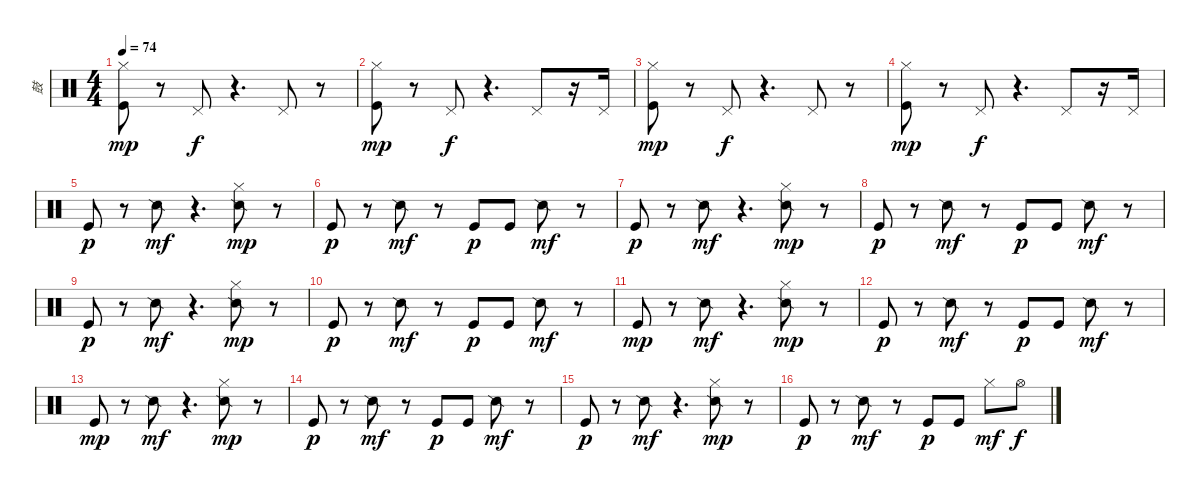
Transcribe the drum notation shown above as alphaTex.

\track ("鼓" "鼓") {instrument percussion}
\staff {score}
\articulation defaults
\ts (4 4)
\tempo 74
\clef neutral
\ks c
("Kick (hit)" "Hi-Hat (closed)").8{dy mp} r.8 "Pedal Hi-Hat (hit)".8{dy f} r.4{d} "Pedal Hi-Hat (hit)".8 r.8 |
("Kick (hit)" "Hi-Hat (closed)").8{dy mp} r.8 "Pedal Hi-Hat (hit)".8{dy f} r.4{d} "Pedal Hi-Hat (hit)".8 r.16 "Pedal Hi-Hat (hit)".16 |
("Kick (hit)" "Hi-Hat (closed)").8{dy mp} r.8 "Pedal Hi-Hat (hit)".8{dy f} r.4{d} "Pedal Hi-Hat (hit)".8 r.8 |
("Kick (hit)" "Hi-Hat (closed)").8{dy mp} r.8 "Pedal Hi-Hat (hit)".8{dy f} r.4{d} "Pedal Hi-Hat (hit)".8 r.16 "Pedal Hi-Hat (hit)".16 |
"Kick (hit)".8{dy p} r.8 "Snare (side stick) 2".8{dy mf} r.4{d} ("Snare (side stick) 2" "Hi-Hat (closed)").8{dy mp} r.8 |
"Kick (hit)".8{dy p} r.8 "Snare (side stick) 2".8{dy mf} r.8 "Kick (hit)".8{dy p} "Kick (hit)".8 "Snare (side stick) 2".8{dy mf} r.8 |
"Kick (hit)".8{dy p} r.8 "Snare (side stick) 2".8{dy mf} r.4{d} ("Snare (side stick) 2" "Hi-Hat (closed)").8{dy mp} r.8 |
"Kick (hit)".8{dy p} r.8 "Snare (side stick) 2".8{dy mf} r.8 "Kick (hit)".8{dy p} "Kick (hit)".8 "Snare (side stick) 2".8{dy mf} r.8 |
"Kick (hit)".8{dy p} r.8 "Snare (side stick) 2".8{dy mf} r.4{d} ("Snare (side stick) 2" "Hi-Hat (closed)").8{dy mp} r.8 |
"Kick (hit)".8{dy p} r.8 "Snare (side stick) 2".8{dy mf} r.8 "Kick (hit)".8{dy p} "Kick (hit)".8 "Snare (side stick) 2".8{dy mf} r.8 |
"Kick (hit)".8{dy mp} r.8 "Snare (side stick) 2".8{dy mf} r.4{d} ("Snare (side stick) 2" "Hi-Hat (closed)").8{dy mp} r.8 |
"Kick (hit)".8{dy p} r.8 "Snare (side stick) 2".8{dy mf} r.8 "Kick (hit)".8{dy p} "Kick (hit)".8 "Snare (side stick) 2".8{dy mf} r.8 |
"Kick (hit)".8{dy mp} r.8 "Snare (side stick) 2".8{dy mf} r.4{d} ("Snare (side stick) 2" "Hi-Hat (closed)").8{dy mp} r.8 |
"Kick (hit)".8{dy p} r.8 "Snare (side stick) 2".8{dy mf} r.8 "Kick (hit)".8{dy p} "Kick (hit)".8 "Snare (side stick) 2".8{dy mf} r.8 |
"Kick (hit)".8{dy p} r.8 "Snare (side stick) 2".8{dy mf} r.4{d} ("Snare (side stick) 2" "Hi-Hat (closed)").8{dy mp} r.8 |
"Kick (hit)".8{dy p} r.8 "Snare (side stick) 2".8{dy mf} r.8 "Kick (hit)".8{dy p} "Kick (hit)".8 "Hi-Hat (closed)".8{dy mf} "Hi-Hat (open)".8{dy f}
